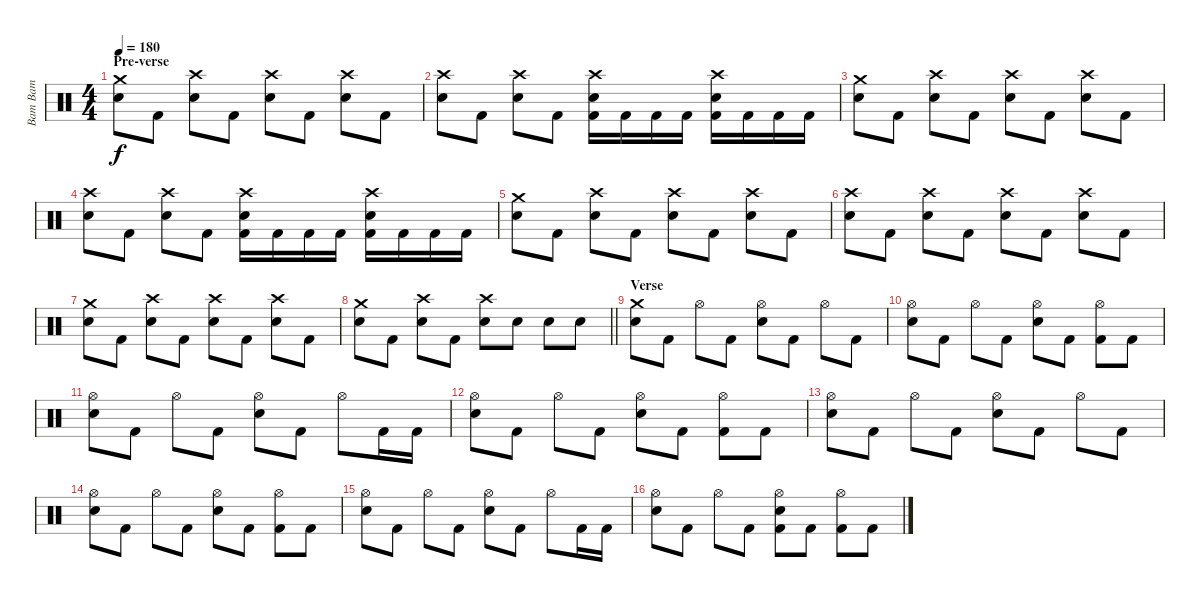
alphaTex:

\track ("Bam Bam" "Bam Bam") {instrument percussion}
\staff {score}
\articulation defaults
\ts (4 4)
\section ("" "Pre-verse")
\tempo 180
\clef neutral
\ks c
("Crash medium (hit)" "Electric Snare (hit)").8{dy f} "Kick (hit) 2".8 ("Crash high (hit)" "Electric Snare (hit)").8 "Kick (hit) 2".8 ("Crash high (hit)" "Electric Snare (hit)").8 "Kick (hit) 2".8 ("Crash high (hit)" "Electric Snare (hit)").8 "Kick (hit) 2".8 |
("Crash high (hit)" "Electric Snare (hit)").8 "Kick (hit) 2".8 ("Crash high (hit)" "Electric Snare (hit)").8 "Kick (hit) 2".8 ("Crash high (hit)" "Electric Snare (hit)" "Kick (hit) 2").16 "Kick (hit) 2".16 "Kick (hit) 2".16 "Kick (hit) 2".16 ("Crash high (hit)" "Electric Snare (hit)" "Kick (hit) 2").16 "Kick (hit) 2".16 "Kick (hit) 2".16 "Kick (hit) 2".16 |
("Crash medium (hit)" "Electric Snare (hit)").8 "Kick (hit) 2".8 ("Crash high (hit)" "Electric Snare (hit)").8 "Kick (hit) 2".8 ("Crash high (hit)" "Electric Snare (hit)").8 "Kick (hit) 2".8 ("Crash high (hit)" "Electric Snare (hit)").8 "Kick (hit) 2".8 |
("Crash high (hit)" "Electric Snare (hit)").8 "Kick (hit) 2".8 ("Crash high (hit)" "Electric Snare (hit)").8 "Kick (hit) 2".8 ("Crash high (hit)" "Electric Snare (hit)" "Kick (hit) 2").16 "Kick (hit) 2".16 "Kick (hit) 2".16 "Kick (hit) 2".16 ("Crash high (hit)" "Electric Snare (hit)" "Kick (hit) 2").16 "Kick (hit) 2".16 "Kick (hit) 2".16 "Kick (hit) 2".16 |
("Crash medium (hit)" "Electric Snare (hit)").8 "Kick (hit) 2".8 ("Crash high (hit)" "Electric Snare (hit)").8 "Kick (hit) 2".8 ("Crash high (hit)" "Electric Snare (hit)").8 "Kick (hit) 2".8 ("Crash high (hit)" "Electric Snare (hit)").8 "Kick (hit) 2".8 |
("Crash high (hit)" "Electric Snare (hit)").8 "Kick (hit) 2".8 ("Crash high (hit)" "Electric Snare (hit)").8 "Kick (hit) 2".8 ("Crash high (hit)" "Electric Snare (hit)").8 "Kick (hit) 2".8 ("Crash high (hit)" "Electric Snare (hit)").8 "Kick (hit) 2".8 |
("Crash medium (hit)" "Electric Snare (hit)").8 "Kick (hit) 2".8 ("Crash high (hit)" "Electric Snare (hit)").8 "Kick (hit) 2".8 ("Crash high (hit)" "Electric Snare (hit)").8 "Kick (hit) 2".8 ("Crash high (hit)" "Electric Snare (hit)").8 "Kick (hit) 2".8 |
\barLineRight lightlight
("Crash medium (hit)" "Electric Snare (hit)").8 "Kick (hit) 2".8 ("Crash high (hit)" "Electric Snare (hit)").8 "Kick (hit) 2".8 ("Crash high (hit)" "Electric Snare (hit)").8 "Electric Snare (hit)".8 "Electric Snare (hit)".8 "Electric Snare (hit)".8 |
\section ("" "Verse")
("Crash medium (hit)" "Electric Snare (hit)").8 "Kick (hit) 2".8 "Hi-Hat (open)".8 "Kick (hit) 2".8 ("Hi-Hat (open)" "Electric Snare (hit)").8 "Kick (hit) 2".8 "Hi-Hat (open)".8 "Kick (hit) 2".8 |
("Hi-Hat (open)" "Electric Snare (hit)").8 "Kick (hit) 2".8 "Hi-Hat (open)".8 "Kick (hit) 2".8 ("Hi-Hat (open)" "Electric Snare (hit)").8 "Kick (hit) 2".8 ("Hi-Hat (open)" "Kick (hit) 2").8 "Kick (hit) 2".8 |
("Hi-Hat (open)" "Electric Snare (hit)").8 "Kick (hit) 2".8 "Hi-Hat (open)".8 "Kick (hit) 2".8 ("Hi-Hat (open)" "Electric Snare (hit)").8 "Kick (hit) 2".8 "Hi-Hat (open)".8 "Kick (hit) 2".16 "Kick (hit) 2".16 |
("Hi-Hat (open)" "Electric Snare (hit)").8 "Kick (hit) 2".8 "Hi-Hat (open)".8 "Kick (hit) 2".8 ("Hi-Hat (open)" "Electric Snare (hit)").8 "Kick (hit) 2".8 ("Hi-Hat (open)" "Kick (hit) 2").8 "Kick (hit) 2".8 |
("Hi-Hat (open)" "Electric Snare (hit)").8 "Kick (hit) 2".8 "Hi-Hat (open)".8 "Kick (hit) 2".8 ("Hi-Hat (open)" "Electric Snare (hit)").8 "Kick (hit) 2".8 "Hi-Hat (open)".8 "Kick (hit) 2".8 |
("Hi-Hat (open)" "Electric Snare (hit)").8 "Kick (hit) 2".8 "Hi-Hat (open)".8 "Kick (hit) 2".8 ("Hi-Hat (open)" "Electric Snare (hit)").8 "Kick (hit) 2".8 ("Hi-Hat (open)" "Kick (hit) 2").8 "Kick (hit) 2".8 |
("Hi-Hat (open)" "Electric Snare (hit)").8 "Kick (hit) 2".8 "Hi-Hat (open)".8 "Kick (hit) 2".8 ("Hi-Hat (open)" "Electric Snare (hit)").8 "Kick (hit) 2".8 "Hi-Hat (open)".8 "Kick (hit) 2".16 "Kick (hit) 2".16 |
("Hi-Hat (open)" "Electric Snare (hit)").8 "Kick (hit) 2".8 "Hi-Hat (open)".8 "Kick (hit) 2".8 ("Hi-Hat (open)" "Electric Snare (hit)" "Kick (hit) 2").8 "Kick (hit) 2".8 ("Hi-Hat (open)" "Kick (hit) 2").8 "Kick (hit) 2".8
